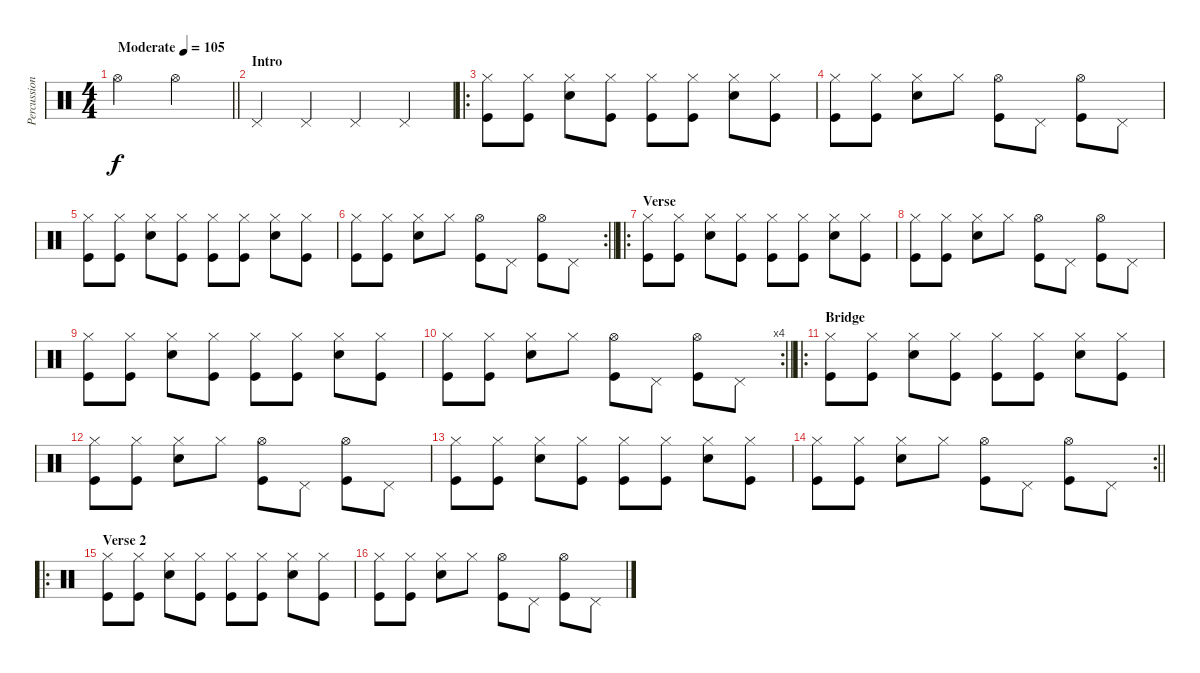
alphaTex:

\track ("Percussion" "Percussion") {instrument percussion}
\staff {score}
\articulation defaults
\ts (4 4)
\tempo (105 "Moderate")
\clef neutral
\barLineRight lightlight
\ks c "Hi-Hat (open)".2{dy f} "Hi-Hat (open)".2
|
\section ("" "Intro")
"Pedal Hi-Hat (hit)".4 "Pedal Hi-Hat (hit)".4 "Pedal Hi-Hat (hit)".4 "Pedal Hi-Hat (hit)".4 |
\ro
("Hi-Hat (closed)" "Kick (hit)").8 ("Hi-Hat (closed)" "Kick (hit)").8 ("Hi-Hat (closed)" "Electric Snare (hit)").8 ("Hi-Hat (closed)" "Kick (hit)").8 ("Hi-Hat (closed)" "Kick (hit)").8 ("Hi-Hat (closed)" "Kick (hit)").8 ("Hi-Hat (closed)" "Electric Snare (hit)").8 ("Hi-Hat (closed)" "Kick (hit)").8 |
("Hi-Hat (closed)" "Kick (hit)").8 ("Hi-Hat (closed)" "Kick (hit)").8 ("Hi-Hat (closed)" "Electric Snare (hit)").8 "Hi-Hat (closed)".8 ("Hi-Hat (open)" "Kick (hit)").8 "Pedal Hi-Hat (hit)".8 ("Hi-Hat (open)" "Kick (hit)").8 "Pedal Hi-Hat (hit)".8 |
("Hi-Hat (closed)" "Kick (hit)").8 ("Hi-Hat (closed)" "Kick (hit)").8 ("Hi-Hat (closed)" "Electric Snare (hit)").8 ("Hi-Hat (closed)" "Kick (hit)").8 ("Hi-Hat (closed)" "Kick (hit)").8 ("Hi-Hat (closed)" "Kick (hit)").8 ("Hi-Hat (closed)" "Electric Snare (hit)").8 ("Hi-Hat (closed)" "Kick (hit)").8 |
\rc 2
\barLineRight lightlight
("Hi-Hat (closed)" "Kick (hit)").8 ("Hi-Hat (closed)" "Kick (hit)").8 ("Hi-Hat (closed)" "Electric Snare (hit)").8 "Hi-Hat (closed)".8 ("Hi-Hat (open)" "Kick (hit)").8 "Pedal Hi-Hat (hit)".8 ("Hi-Hat (open)" "Kick (hit)").8 "Pedal Hi-Hat (hit)".8 |
\ro
\section ("" "Verse")
("Hi-Hat (closed)" "Kick (hit)").8 ("Hi-Hat (closed)" "Kick (hit)").8 ("Hi-Hat (closed)" "Electric Snare (hit)").8 ("Hi-Hat (closed)" "Kick (hit)").8 ("Hi-Hat (closed)" "Kick (hit)").8 ("Hi-Hat (closed)" "Kick (hit)").8 ("Hi-Hat (closed)" "Electric Snare (hit)").8 ("Hi-Hat (closed)" "Kick (hit)").8 |
("Hi-Hat (closed)" "Kick (hit)").8 ("Hi-Hat (closed)" "Kick (hit)").8 ("Hi-Hat (closed)" "Electric Snare (hit)").8 "Hi-Hat (closed)".8 ("Hi-Hat (open)" "Kick (hit)").8 "Pedal Hi-Hat (hit)".8 ("Hi-Hat (open)" "Kick (hit)").8 "Pedal Hi-Hat (hit)".8 |
("Hi-Hat (closed)" "Kick (hit)").8 ("Hi-Hat (closed)" "Kick (hit)").8 ("Hi-Hat (closed)" "Electric Snare (hit)").8 ("Hi-Hat (closed)" "Kick (hit)").8 ("Hi-Hat (closed)" "Kick (hit)").8 ("Hi-Hat (closed)" "Kick (hit)").8 ("Hi-Hat (closed)" "Electric Snare (hit)").8 ("Hi-Hat (closed)" "Kick (hit)").8 |
\rc 4
\barLineRight lightlight
("Hi-Hat (closed)" "Kick (hit)").8 ("Hi-Hat (closed)" "Kick (hit)").8 ("Hi-Hat (closed)" "Electric Snare (hit)").8 "Hi-Hat (closed)".8 ("Hi-Hat (open)" "Kick (hit)").8 "Pedal Hi-Hat (hit)".8 ("Hi-Hat (open)" "Kick (hit)").8 "Pedal Hi-Hat (hit)".8 |
\ro
\section ("" "Bridge")
("Hi-Hat (closed)" "Kick (hit)").8 ("Hi-Hat (closed)" "Kick (hit)").8 ("Hi-Hat (closed)" "Electric Snare (hit)").8 ("Hi-Hat (closed)" "Kick (hit)").8 ("Hi-Hat (closed)" "Kick (hit)").8 ("Hi-Hat (closed)" "Kick (hit)").8 ("Hi-Hat (closed)" "Electric Snare (hit)").8 ("Hi-Hat (closed)" "Kick (hit)").8 |
("Hi-Hat (closed)" "Kick (hit)").8 ("Hi-Hat (closed)" "Kick (hit)").8 ("Hi-Hat (closed)" "Electric Snare (hit)").8 "Hi-Hat (closed)".8 ("Hi-Hat (open)" "Kick (hit)").8 "Pedal Hi-Hat (hit)".8 ("Hi-Hat (open)" "Kick (hit)").8 "Pedal Hi-Hat (hit)".8 |
("Hi-Hat (closed)" "Kick (hit)").8 ("Hi-Hat (closed)" "Kick (hit)").8 ("Hi-Hat (closed)" "Electric Snare (hit)").8 ("Hi-Hat (closed)" "Kick (hit)").8 ("Hi-Hat (closed)" "Kick (hit)").8 ("Hi-Hat (closed)" "Kick (hit)").8 ("Hi-Hat (closed)" "Electric Snare (hit)").8 ("Hi-Hat (closed)" "Kick (hit)").8 |
\rc 2
\barLineRight lightlight
("Hi-Hat (closed)" "Kick (hit)").8 ("Hi-Hat (closed)" "Kick (hit)").8 ("Hi-Hat (closed)" "Electric Snare (hit)").8 "Hi-Hat (closed)".8 ("Hi-Hat (open)" "Kick (hit)").8 "Pedal Hi-Hat (hit)".8 ("Hi-Hat (open)" "Kick (hit)").8 "Pedal Hi-Hat (hit)".8 |
\ro
\section ("" "Verse 2")
("Hi-Hat (closed)" "Kick (hit)").8 ("Hi-Hat (closed)" "Kick (hit)").8 ("Hi-Hat (closed)" "Electric Snare (hit)").8 ("Hi-Hat (closed)" "Kick (hit)").8 ("Hi-Hat (closed)" "Kick (hit)").8 ("Hi-Hat (closed)" "Kick (hit)").8 ("Hi-Hat (closed)" "Electric Snare (hit)").8 ("Hi-Hat (closed)" "Kick (hit)").8 |
("Hi-Hat (closed)" "Kick (hit)").8 ("Hi-Hat (closed)" "Kick (hit)").8 ("Hi-Hat (closed)" "Electric Snare (hit)").8 "Hi-Hat (closed)".8 ("Hi-Hat (open)" "Kick (hit)").8 "Pedal Hi-Hat (hit)".8 ("Hi-Hat (open)" "Kick (hit)").8 "Pedal Hi-Hat (hit)".8
